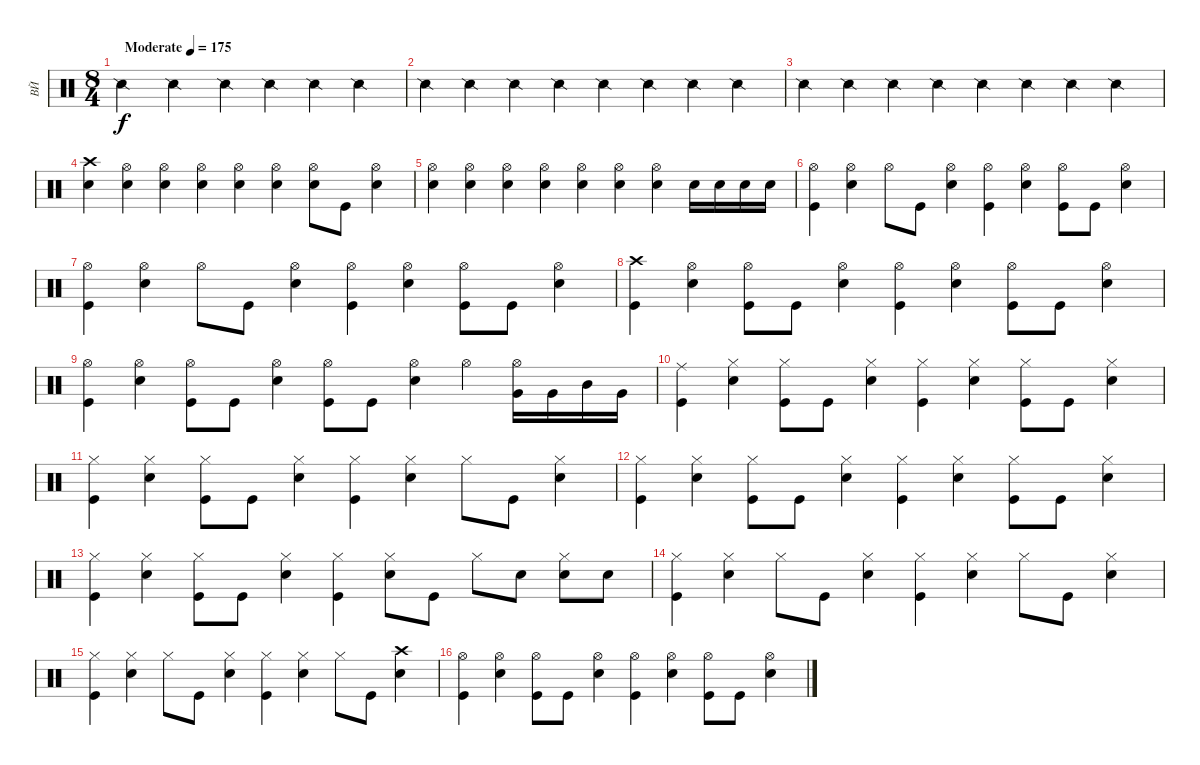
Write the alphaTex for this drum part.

\track ("ВЙ" "ВЙ") {instrument percussion}
\staff {score}
\articulation defaults
\ts (8 4)
\tempo (175 "Moderate")
\clef neutral
\ks c "Snare (side stick) 2".2{dy f} "Snare (side stick) 2".2 "Snare (side stick) 2".4 "Snare (side stick) 2".4 "Snare (side stick) 2".4 "Snare (side stick) 2".4
|
"Snare (side stick) 2".4 "Snare (side stick) 2".4 "Snare (side stick) 2".4 "Snare (side stick) 2".4 "Snare (side stick) 2".4 "Snare (side stick) 2".4 "Snare (side stick) 2".4 "Snare (side stick) 2".4 |
"Snare (side stick) 2".4 "Snare (side stick) 2".4 "Snare (side stick) 2".4 "Snare (side stick) 2".4 "Snare (side stick) 2".4 "Snare (side stick) 2".4 "Snare (side stick) 2".4 "Snare (side stick) 2".4 |
("Crash high (hit)" "Electric Snare (hit)").4 ("Hi-Hat (open)" "Electric Snare (hit)").4 ("Hi-Hat (open)" "Electric Snare (hit)").4 ("Hi-Hat (open)" "Electric Snare (hit)").4 ("Hi-Hat (open)" "Electric Snare (hit)").4 ("Hi-Hat (open)" "Electric Snare (hit)").4 ("Hi-Hat (open)" "Electric Snare (hit)").8 "Kick (hit)".8 ("Hi-Hat (open)" "Electric Snare (hit)").4 |
("Hi-Hat (open)" "Electric Snare (hit)").4 ("Hi-Hat (open)" "Electric Snare (hit)").4 ("Hi-Hat (open)" "Electric Snare (hit)").4 ("Hi-Hat (open)" "Electric Snare (hit)").4 ("Hi-Hat (open)" "Electric Snare (hit)").4 ("Hi-Hat (open)" "Electric Snare (hit)").4 ("Hi-Hat (open)" "Electric Snare (hit)").4 "Electric Snare (hit)".16 "Electric Snare (hit)".16 "Electric Snare (hit)".16 "Electric Snare (hit)".16 |
("Hi-Hat (open)" "Kick (hit)").4 ("Hi-Hat (open)" "Electric Snare (hit)").4 "Hi-Hat (open)".8 "Kick (hit)".8 ("Hi-Hat (open)" "Electric Snare (hit)").4 ("Hi-Hat (open)" "Kick (hit)").4 ("Hi-Hat (open)" "Electric Snare (hit)").4 ("Hi-Hat (open)" "Kick (hit)").8 "Kick (hit)".8 ("Hi-Hat (open)" "Electric Snare (hit)").4 |
("Hi-Hat (open)" "Kick (hit)").4 ("Hi-Hat (open)" "Electric Snare (hit)").4 "Hi-Hat (open)".8 "Kick (hit)".8 ("Hi-Hat (open)" "Electric Snare (hit)").4 ("Hi-Hat (open)" "Kick (hit)").4 ("Hi-Hat (open)" "Electric Snare (hit)").4 ("Hi-Hat (open)" "Kick (hit)").8 "Kick (hit)".8 ("Hi-Hat (open)" "Electric Snare (hit)").4 |
("Crash high (hit)" "Kick (hit)").4 ("Hi-Hat (open)" "Electric Snare (hit)").4 ("Hi-Hat (open)" "Kick (hit)").8 "Kick (hit)".8 ("Hi-Hat (open)" "Electric Snare (hit)").4 ("Hi-Hat (open)" "Kick (hit)").4 ("Hi-Hat (open)" "Electric Snare (hit)").4 ("Hi-Hat (open)" "Kick (hit)").8 "Kick (hit)".8 ("Hi-Hat (open)" "Electric Snare (hit)").4 |
("Hi-Hat (open)" "Kick (hit)").4 ("Hi-Hat (open)" "Electric Snare (hit)").4 ("Hi-Hat (open)" "Kick (hit)").8 "Kick (hit)".8 ("Hi-Hat (open)" "Electric Snare (hit)").4 ("Hi-Hat (open)" "Kick (hit)").8 "Kick (hit)".8 ("Hi-Hat (open)" "Electric Snare (hit)").4 "Hi-Hat (open)".4 ("Hi-Hat (open)" "Very Low Tom (hit)").16 "Very Low Tom (hit)".16 "Mid Tom (hit)".16 "Very Low Tom (hit)".16 |
("Ride (middle)" "Kick (hit)").4 ("Hi-Hat (closed)" "Electric Snare (hit)").4 ("Hi-Hat (closed)" "Kick (hit)").8 "Kick (hit)".8 ("Hi-Hat (closed)" "Electric Snare (hit)").4 ("Hi-Hat (closed)" "Kick (hit)").4 ("Hi-Hat (closed)" "Electric Snare (hit)").4 ("Hi-Hat (closed)" "Kick (hit)").8 "Kick (hit)".8 ("Hi-Hat (closed)" "Electric Snare (hit)").4 |
("Hi-Hat (closed)" "Kick (hit)").4 ("Hi-Hat (closed)" "Electric Snare (hit)").4 ("Hi-Hat (closed)" "Kick (hit)").8 "Kick (hit)".8 ("Hi-Hat (closed)" "Electric Snare (hit)").4 ("Hi-Hat (closed)" "Kick (hit)").4 ("Hi-Hat (closed)" "Electric Snare (hit)").4 "Hi-Hat (closed)".8 "Kick (hit)".8 ("Hi-Hat (closed)" "Electric Snare (hit)").4 |
("Hi-Hat (closed)" "Kick (hit)").4 ("Hi-Hat (closed)" "Electric Snare (hit)").4 ("Hi-Hat (closed)" "Kick (hit)").8 "Kick (hit)".8 ("Hi-Hat (closed)" "Electric Snare (hit)").4 ("Hi-Hat (closed)" "Kick (hit)").4 ("Hi-Hat (closed)" "Electric Snare (hit)").4 ("Hi-Hat (closed)" "Kick (hit)").8 "Kick (hit)".8 ("Hi-Hat (closed)" "Electric Snare (hit)").4 |
("Hi-Hat (closed)" "Kick (hit)").4 ("Hi-Hat (closed)" "Electric Snare (hit)").4 ("Hi-Hat (closed)" "Kick (hit)").8 "Kick (hit)".8 ("Hi-Hat (closed)" "Electric Snare (hit)").4 ("Hi-Hat (closed)" "Kick (hit)").4 ("Hi-Hat (closed)" "Electric Snare (hit)").8 "Kick (hit)".8 "Hi-Hat (closed)".8 "Electric Snare (hit)".8 ("Hi-Hat (closed)" "Electric Snare (hit)").8 "Electric Snare (hit)".8 |
("Hi-Hat (closed)" "Kick (hit)").4 ("Hi-Hat (closed)" "Electric Snare (hit)").4 "Hi-Hat (closed)".8 "Kick (hit)".8 ("Hi-Hat (closed)" "Electric Snare (hit)").4 ("Hi-Hat (closed)" "Kick (hit)").4 ("Hi-Hat (closed)" "Electric Snare (hit)").4 "Hi-Hat (closed)".8 "Kick (hit)".8 ("Hi-Hat (closed)" "Electric Snare (hit)").4 |
("Hi-Hat (closed)" "Kick (hit)").4 ("Hi-Hat (closed)" "Electric Snare (hit)").4 "Hi-Hat (closed)".8 "Kick (hit)".8 ("Hi-Hat (closed)" "Electric Snare (hit)").4 ("Hi-Hat (closed)" "Kick (hit)").4 ("Hi-Hat (closed)" "Electric Snare (hit)").4 "Hi-Hat (closed)".8 "Kick (hit)".8 ("Crash high (hit)" "Electric Snare (hit)").4 |
("Hi-Hat (open)" "Kick (hit)").4 ("Hi-Hat (open)" "Electric Snare (hit)").4 ("Hi-Hat (open)" "Kick (hit)").8 "Kick (hit)".8 ("Hi-Hat (open)" "Electric Snare (hit)").4 ("Hi-Hat (open)" "Kick (hit)").4 ("Hi-Hat (open)" "Electric Snare (hit)").4 ("Hi-Hat (open)" "Kick (hit)").8 "Kick (hit)".8 ("Hi-Hat (open)" "Electric Snare (hit)").4
